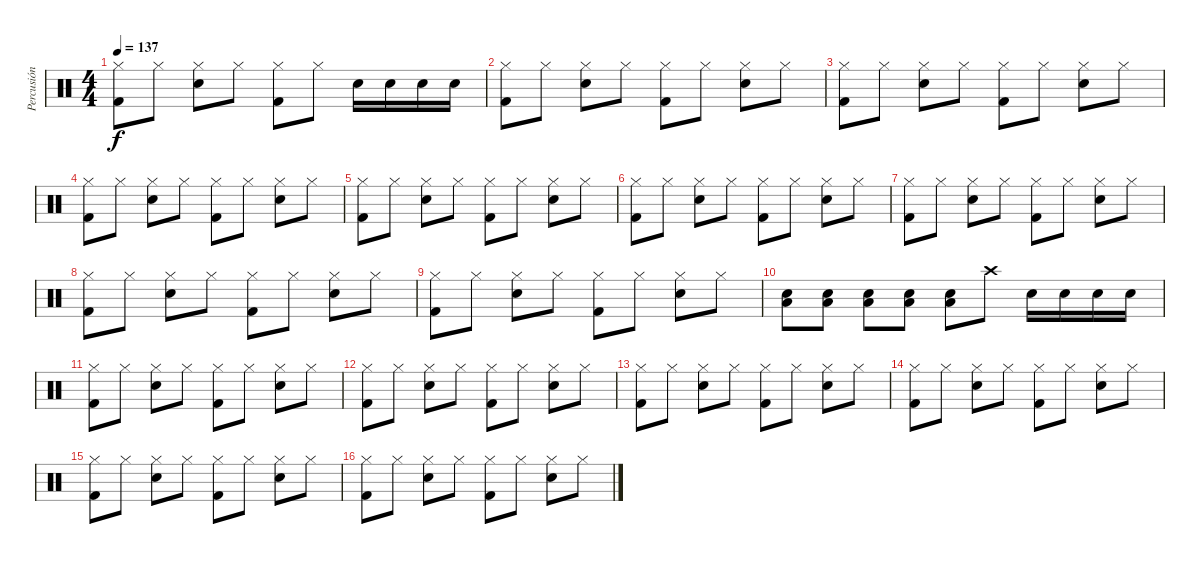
\track ("Percusión" "Percusión") {instrument percussion}
\staff {score}
\articulation defaults
\ts (4 4)
\tempo 137
\clef neutral
\ks c
("Hi-Hat (closed)" "Kick (hit) 2").8{dy f} "Hi-Hat (closed)".8 ("Hi-Hat (closed)" "Electric Snare (hit)").8 "Hi-Hat (closed)".8 ("Hi-Hat (closed)" "Kick (hit) 2").8 "Hi-Hat (closed)".8 "Electric Snare (hit)".16 "Electric Snare (hit)".16 "Electric Snare (hit)".16 "Electric Snare (hit)".16 |
("Hi-Hat (closed)" "Kick (hit) 2").8 "Hi-Hat (closed)".8 ("Hi-Hat (closed)" "Electric Snare (hit)").8 "Hi-Hat (closed)".8 ("Hi-Hat (closed)" "Kick (hit) 2").8 "Hi-Hat (closed)".8 ("Hi-Hat (closed)" "Electric Snare (hit)").8 "Hi-Hat (closed)".8 |
("Hi-Hat (closed)" "Kick (hit) 2").8 "Hi-Hat (closed)".8 ("Hi-Hat (closed)" "Electric Snare (hit)").8 "Hi-Hat (closed)".8 ("Hi-Hat (closed)" "Kick (hit) 2").8 "Hi-Hat (closed)".8 ("Hi-Hat (closed)" "Electric Snare (hit)").8 "Hi-Hat (closed)".8 |
("Hi-Hat (closed)" "Kick (hit) 2").8 "Hi-Hat (closed)".8 ("Hi-Hat (closed)" "Electric Snare (hit)").8 "Hi-Hat (closed)".8 ("Hi-Hat (closed)" "Kick (hit) 2").8 "Hi-Hat (closed)".8 ("Hi-Hat (closed)" "Electric Snare (hit)").8 "Hi-Hat (closed)".8 |
("Hi-Hat (closed)" "Kick (hit) 2").8 "Hi-Hat (closed)".8 ("Hi-Hat (closed)" "Electric Snare (hit)").8 "Hi-Hat (closed)".8 ("Hi-Hat (closed)" "Kick (hit) 2").8 "Hi-Hat (closed)".8 ("Hi-Hat (closed)" "Electric Snare (hit)").8 "Hi-Hat (closed)".8 |
("Hi-Hat (closed)" "Kick (hit) 2").8 "Hi-Hat (closed)".8 ("Hi-Hat (closed)" "Electric Snare (hit)").8 "Hi-Hat (closed)".8 ("Hi-Hat (closed)" "Kick (hit) 2").8 "Hi-Hat (closed)".8 ("Hi-Hat (closed)" "Electric Snare (hit)").8 "Hi-Hat (closed)".8 |
("Hi-Hat (closed)" "Kick (hit) 2").8 "Hi-Hat (closed)".8 ("Hi-Hat (closed)" "Electric Snare (hit)").8 "Hi-Hat (closed)".8 ("Hi-Hat (closed)" "Kick (hit) 2").8 "Hi-Hat (closed)".8 ("Hi-Hat (closed)" "Electric Snare (hit)").8 "Hi-Hat (closed)".8 |
("Hi-Hat (closed)" "Kick (hit) 2").8 "Hi-Hat (closed)".8 ("Hi-Hat (closed)" "Electric Snare (hit)").8 "Hi-Hat (closed)".8 ("Hi-Hat (closed)" "Kick (hit) 2").8 "Hi-Hat (closed)".8 ("Hi-Hat (closed)" "Electric Snare (hit)").8 "Hi-Hat (closed)".8 |
("Hi-Hat (closed)" "Kick (hit) 2").8 "Hi-Hat (closed)".8 ("Hi-Hat (closed)" "Electric Snare (hit)").8 "Hi-Hat (closed)".8 ("Hi-Hat (closed)" "Kick (hit) 2").8 "Hi-Hat (closed)".8 ("Hi-Hat (closed)" "Electric Snare (hit)").8 "Hi-Hat (closed)".8 |
("Electric Snare (hit)" "Low Floor Tom (hit)").8 ("Electric Snare (hit)" "Low Floor Tom (hit)").8 ("Electric Snare (hit)" "Low Floor Tom (hit)").8 ("Electric Snare (hit)" "Low Floor Tom (hit)").8 ("Electric Snare (hit)" "Low Floor Tom (hit)").8 "Crash high (hit)".8 "Electric Snare (hit)".16 "Electric Snare (hit)".16 "Electric Snare (hit)".16 "Electric Snare (hit)".16 |
("Hi-Hat (closed)" "Kick (hit) 2").8 "Hi-Hat (closed)".8 ("Hi-Hat (closed)" "Electric Snare (hit)").8 "Hi-Hat (closed)".8 ("Hi-Hat (closed)" "Kick (hit) 2").8 "Hi-Hat (closed)".8 ("Hi-Hat (closed)" "Electric Snare (hit)").8 "Hi-Hat (closed)".8 |
("Hi-Hat (closed)" "Kick (hit) 2").8 "Hi-Hat (closed)".8 ("Hi-Hat (closed)" "Electric Snare (hit)").8 "Hi-Hat (closed)".8 ("Hi-Hat (closed)" "Kick (hit) 2").8 "Hi-Hat (closed)".8 ("Hi-Hat (closed)" "Electric Snare (hit)").8 "Hi-Hat (closed)".8 |
("Hi-Hat (closed)" "Kick (hit) 2").8 "Hi-Hat (closed)".8 ("Hi-Hat (closed)" "Electric Snare (hit)").8 "Hi-Hat (closed)".8 ("Hi-Hat (closed)" "Kick (hit) 2").8 "Hi-Hat (closed)".8 ("Hi-Hat (closed)" "Electric Snare (hit)").8 "Hi-Hat (closed)".8 |
("Hi-Hat (closed)" "Kick (hit) 2").8 "Hi-Hat (closed)".8 ("Hi-Hat (closed)" "Electric Snare (hit)").8 "Hi-Hat (closed)".8 ("Hi-Hat (closed)" "Kick (hit) 2").8 "Hi-Hat (closed)".8 ("Hi-Hat (closed)" "Electric Snare (hit)").8 "Hi-Hat (closed)".8 |
("Hi-Hat (closed)" "Kick (hit) 2").8 "Hi-Hat (closed)".8 ("Hi-Hat (closed)" "Electric Snare (hit)").8 "Hi-Hat (closed)".8 ("Hi-Hat (closed)" "Kick (hit) 2").8 "Hi-Hat (closed)".8 ("Hi-Hat (closed)" "Electric Snare (hit)").8 "Hi-Hat (closed)".8 |
("Hi-Hat (closed)" "Kick (hit) 2").8 "Hi-Hat (closed)".8 ("Hi-Hat (closed)" "Electric Snare (hit)").8 "Hi-Hat (closed)".8 ("Hi-Hat (closed)" "Kick (hit) 2").8 "Hi-Hat (closed)".8 ("Hi-Hat (closed)" "Electric Snare (hit)").8 "Hi-Hat (closed)".8
